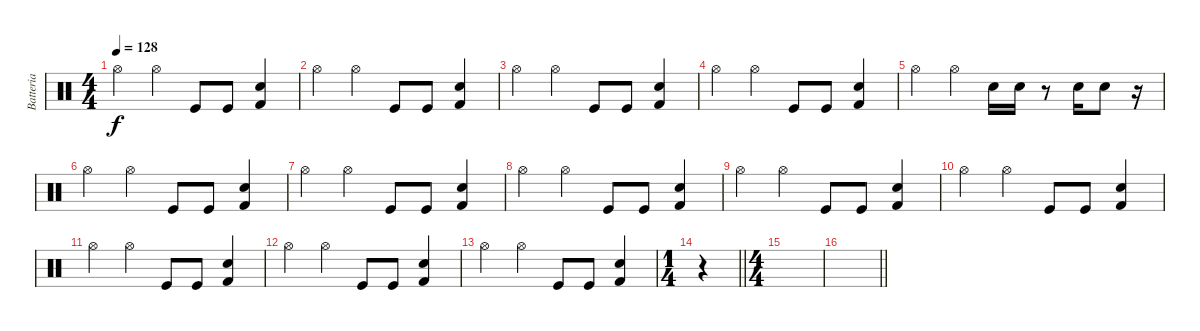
\track ("Batteria" "Batteria") {instrument percussion}
\staff {score}
\articulation defaults
\ts (4 4)
\tempo 128
\clef neutral
\ks c "Hi-Hat (open)".4{dy f} "Hi-Hat (open)".4 "Kick (hit)".8 "Kick (hit)".8
("Kick (hit) 2" "Snare (hit) 2").4 |
"Hi-Hat (open)".4 "Hi-Hat (open)".4 "Kick (hit)".8 "Kick (hit)".8 ("Kick (hit) 2" "Snare (hit) 2").4 |
"Hi-Hat (open)".4 "Hi-Hat (open)".4 "Kick (hit)".8 "Kick (hit)".8 ("Kick (hit) 2" "Snare (hit) 2").4 |
"Hi-Hat (open)".4 "Hi-Hat (open)".4 "Kick (hit)".8 "Kick (hit)".8 ("Kick (hit) 2" "Snare (hit) 2").4 |
"Hi-Hat (open)".4 "Hi-Hat (open)".4 "Snare (hit) 2".16 "Snare (hit) 2".16 r.8 "Snare (hit) 2".16 "Snare (hit) 2".8 r.16 |
"Hi-Hat (open)".4 "Hi-Hat (open)".4 "Kick (hit)".8 "Kick (hit)".8 ("Kick (hit) 2" "Snare (hit) 2").4 |
"Hi-Hat (open)".4 "Hi-Hat (open)".4 "Kick (hit)".8 "Kick (hit)".8 ("Kick (hit) 2" "Snare (hit) 2").4 |
"Hi-Hat (open)".4 "Hi-Hat (open)".4 "Kick (hit)".8 "Kick (hit)".8 ("Kick (hit) 2" "Snare (hit) 2").4 |
"Hi-Hat (open)".4 "Hi-Hat (open)".4 "Kick (hit)".8 "Kick (hit)".8 ("Kick (hit) 2" "Snare (hit) 2").4 |
"Hi-Hat (open)".4 "Hi-Hat (open)".4 "Kick (hit)".8 "Kick (hit)".8 ("Kick (hit) 2" "Snare (hit) 2").4 |
"Hi-Hat (open)".4 "Hi-Hat (open)".4 "Kick (hit)".8 "Kick (hit)".8 ("Kick (hit) 2" "Snare (hit) 2").4 |
"Hi-Hat (open)".4 "Hi-Hat (open)".4 "Kick (hit)".8 "Kick (hit)".8 ("Kick (hit) 2" "Snare (hit) 2").4 |
"Hi-Hat (open)".4 "Hi-Hat (open)".4 "Kick (hit)".8 "Kick (hit)".8 ("Kick (hit) 2" "Snare (hit) 2").4 |
\ts (1 4)
\barLineRight lightlight
r.4 |
\ts (4 4)
|
\barLineRight lightlight
